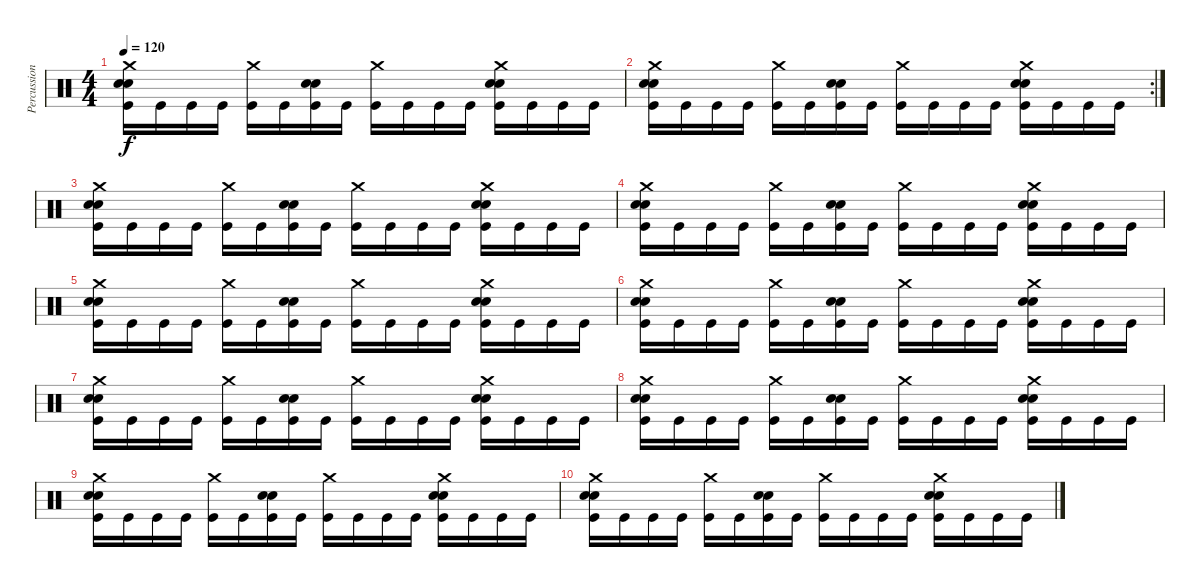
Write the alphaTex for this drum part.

\track ("Percussion" "Percussion") {instrument percussion}
\staff {score}
\articulation defaults
\ts (4 4)
\tempo 120
\clef neutral
\ks c
("Crash medium (hit)" "Snare (hit) 2" "Snare (hit) 2" "Kick (hit)").16{dy f} "Kick (hit)".16 "Kick (hit)".16 "Kick (hit)".16 ("Crash medium (hit)" "Kick (hit)").16 "Kick (hit)".16 ("Snare (hit) 2" "Snare (hit) 2" "Kick (hit)").16 "Kick (hit)".16 ("Crash medium (hit)" "Kick (hit)").16 "Kick (hit)".16 "Kick (hit)".16 "Kick (hit)".16 ("Crash medium (hit)" "Snare (hit) 2" "Snare (hit) 2" "Kick (hit)").16 "Kick (hit)".16 "Kick (hit)".16 "Kick (hit)".16 |
\rc 2
("Crash medium (hit)" "Snare (hit) 2" "Snare (hit) 2" "Kick (hit)").16 "Kick (hit)".16 "Kick (hit)".16 "Kick (hit)".16 ("Crash medium (hit)" "Kick (hit)").16 "Kick (hit)".16 ("Snare (hit) 2" "Snare (hit) 2" "Kick (hit)").16 "Kick (hit)".16 ("Crash medium (hit)" "Kick (hit)").16 "Kick (hit)".16 "Kick (hit)".16 "Kick (hit)".16 ("Crash medium (hit)" "Snare (hit) 2" "Snare (hit) 2" "Kick (hit)").16 "Kick (hit)".16 "Kick (hit)".16 "Kick (hit)".16 |
("Crash medium (hit)" "Snare (hit) 2" "Snare (hit) 2" "Kick (hit)").16 "Kick (hit)".16 "Kick (hit)".16 "Kick (hit)".16 ("Crash medium (hit)" "Kick (hit)").16 "Kick (hit)".16 ("Snare (hit) 2" "Snare (hit) 2" "Kick (hit)").16 "Kick (hit)".16 ("Crash medium (hit)" "Kick (hit)").16 "Kick (hit)".16 "Kick (hit)".16 "Kick (hit)".16 ("Crash medium (hit)" "Snare (hit) 2" "Snare (hit) 2" "Kick (hit)").16 "Kick (hit)".16 "Kick (hit)".16 "Kick (hit)".16 |
("Crash medium (hit)" "Snare (hit) 2" "Snare (hit) 2" "Kick (hit)").16 "Kick (hit)".16 "Kick (hit)".16 "Kick (hit)".16 ("Crash medium (hit)" "Kick (hit)").16 "Kick (hit)".16 ("Snare (hit) 2" "Snare (hit) 2" "Kick (hit)").16 "Kick (hit)".16 ("Crash medium (hit)" "Kick (hit)").16 "Kick (hit)".16 "Kick (hit)".16 "Kick (hit)".16 ("Crash medium (hit)" "Snare (hit) 2" "Snare (hit) 2" "Kick (hit)").16 "Kick (hit)".16 "Kick (hit)".16 "Kick (hit)".16 |
("Crash medium (hit)" "Snare (hit) 2" "Snare (hit) 2" "Kick (hit)").16 "Kick (hit)".16 "Kick (hit)".16 "Kick (hit)".16 ("Crash medium (hit)" "Kick (hit)").16 "Kick (hit)".16 ("Snare (hit) 2" "Snare (hit) 2" "Kick (hit)").16 "Kick (hit)".16 ("Crash medium (hit)" "Kick (hit)").16 "Kick (hit)".16 "Kick (hit)".16 "Kick (hit)".16 ("Crash medium (hit)" "Snare (hit) 2" "Snare (hit) 2" "Kick (hit)").16 "Kick (hit)".16 "Kick (hit)".16 "Kick (hit)".16 |
("Crash medium (hit)" "Snare (hit) 2" "Snare (hit) 2" "Kick (hit)").16 "Kick (hit)".16 "Kick (hit)".16 "Kick (hit)".16 ("Crash medium (hit)" "Kick (hit)").16 "Kick (hit)".16 ("Snare (hit) 2" "Snare (hit) 2" "Kick (hit)").16 "Kick (hit)".16 ("Crash medium (hit)" "Kick (hit)").16 "Kick (hit)".16 "Kick (hit)".16 "Kick (hit)".16 ("Crash medium (hit)" "Snare (hit) 2" "Snare (hit) 2" "Kick (hit)").16 "Kick (hit)".16 "Kick (hit)".16 "Kick (hit)".16 |
("Crash medium (hit)" "Snare (hit) 2" "Snare (hit) 2" "Kick (hit)").16 "Kick (hit)".16 "Kick (hit)".16 "Kick (hit)".16 ("Crash medium (hit)" "Kick (hit)").16 "Kick (hit)".16 ("Snare (hit) 2" "Snare (hit) 2" "Kick (hit)").16 "Kick (hit)".16 ("Crash medium (hit)" "Kick (hit)").16 "Kick (hit)".16 "Kick (hit)".16 "Kick (hit)".16 ("Crash medium (hit)" "Snare (hit) 2" "Snare (hit) 2" "Kick (hit)").16 "Kick (hit)".16 "Kick (hit)".16 "Kick (hit)".16 |
("Crash medium (hit)" "Snare (hit) 2" "Snare (hit) 2" "Kick (hit)").16 "Kick (hit)".16 "Kick (hit)".16 "Kick (hit)".16 ("Crash medium (hit)" "Kick (hit)").16 "Kick (hit)".16 ("Snare (hit) 2" "Snare (hit) 2" "Kick (hit)").16 "Kick (hit)".16 ("Crash medium (hit)" "Kick (hit)").16 "Kick (hit)".16 "Kick (hit)".16 "Kick (hit)".16 ("Crash medium (hit)" "Snare (hit) 2" "Snare (hit) 2" "Kick (hit)").16 "Kick (hit)".16 "Kick (hit)".16 "Kick (hit)".16 |
("Crash medium (hit)" "Snare (hit) 2" "Snare (hit) 2" "Kick (hit)").16 "Kick (hit)".16 "Kick (hit)".16 "Kick (hit)".16 ("Crash medium (hit)" "Kick (hit)").16 "Kick (hit)".16 ("Snare (hit) 2" "Snare (hit) 2" "Kick (hit)").16 "Kick (hit)".16 ("Crash medium (hit)" "Kick (hit)").16 "Kick (hit)".16 "Kick (hit)".16 "Kick (hit)".16 ("Crash medium (hit)" "Snare (hit) 2" "Snare (hit) 2" "Kick (hit)").16 "Kick (hit)".16 "Kick (hit)".16 "Kick (hit)".16 |
("Crash medium (hit)" "Snare (hit) 2" "Snare (hit) 2" "Kick (hit)").16 "Kick (hit)".16 "Kick (hit)".16 "Kick (hit)".16 ("Crash medium (hit)" "Kick (hit)").16 "Kick (hit)".16 ("Snare (hit) 2" "Snare (hit) 2" "Kick (hit)").16 "Kick (hit)".16 ("Crash medium (hit)" "Kick (hit)").16 "Kick (hit)".16 "Kick (hit)".16 "Kick (hit)".16 ("Crash medium (hit)" "Snare (hit) 2" "Snare (hit) 2" "Kick (hit)").16 "Kick (hit)".16 "Kick (hit)".16 "Kick (hit)".16
